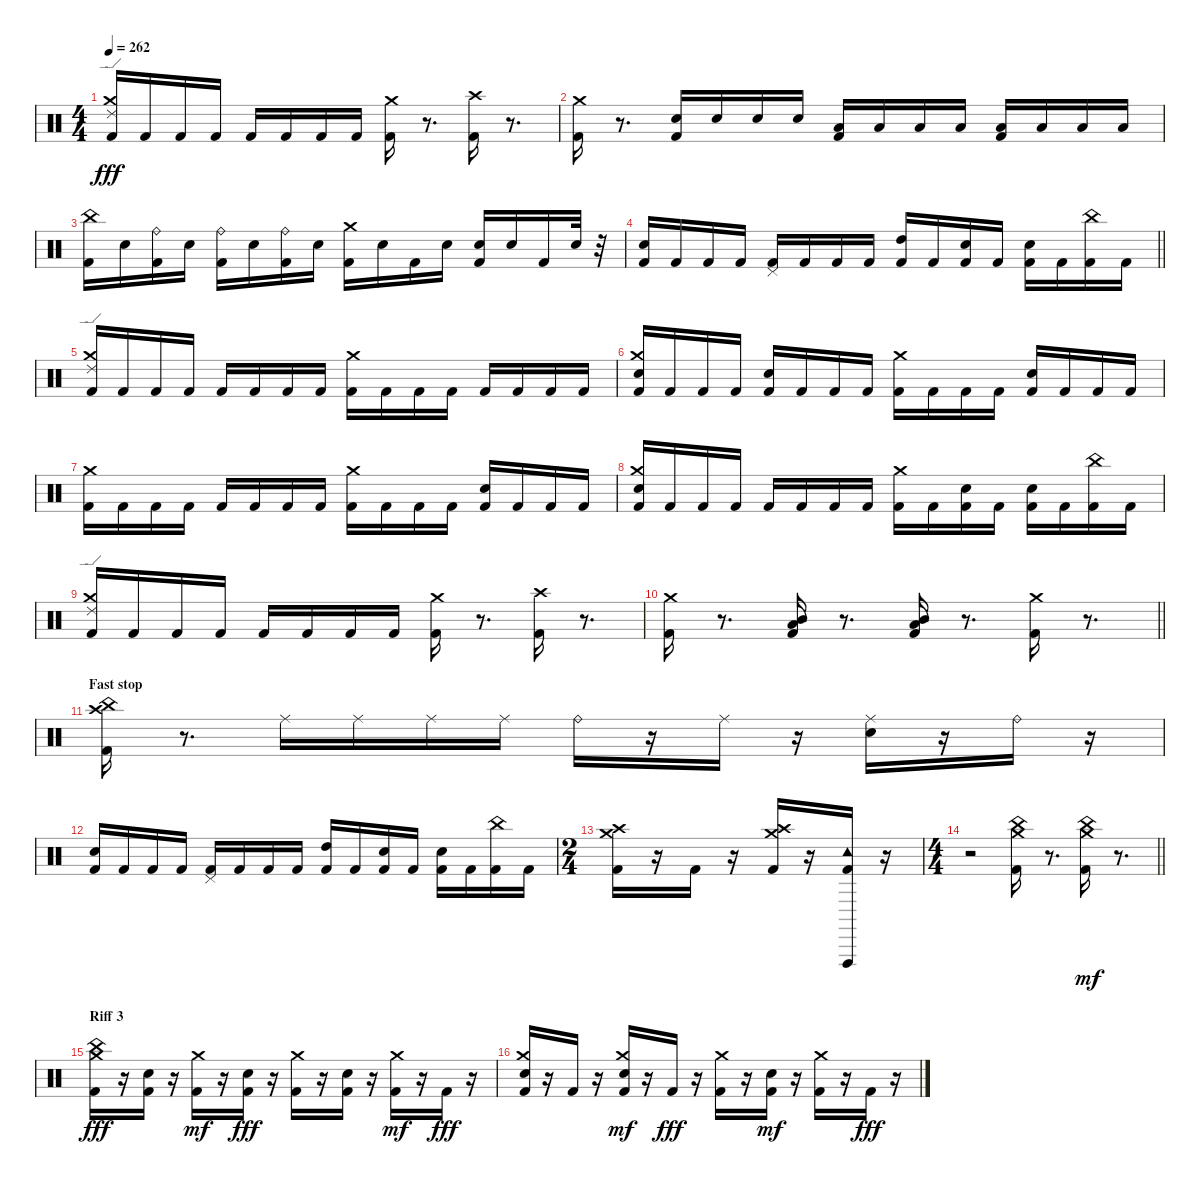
\track "" {instrument percussion}
\staff {score}
\articulation defaults
\ts (4 4)
\tempo 262
\clef neutral
\ks c
("Kick (hit) 2" "Crash medium (hit)" "Ride (edge) 2").16{dy fff} "Kick (hit) 2".16 "Kick (hit) 2".16 "Kick (hit) 2".16 "Kick (hit) 2".16 "Kick (hit) 2".16 "Kick (hit) 2".16 "Kick (hit) 2".16 ("Kick (hit) 2" "Crash medium (hit)").16 r.8{d} ("Kick (hit) 2" "Crash high (hit)").16 r.8{d} |
("Kick (hit) 2" "Crash medium (hit)").16 r.8{d} ("Kick (hit) 2" "Snare (hit) 2").16 "Snare (hit) 2".16 "Snare (hit) 2".16 "Snare (hit) 2".16 ("Kick (hit) 2" "Low Tom (hit)").16 "Low Tom (hit)".16 "Low Tom (hit)".16 "Low Tom (hit)".16 ("Kick (hit) 2" "Low Floor Tom (hit)").16 "Low Floor Tom (hit)".16 "Low Floor Tom (hit)".16 "Low Floor Tom (hit)".16 |
("Kick (hit) 2" "China (hit)").16 "Electric Snare (hit)".16 ("Kick (hit) 2" "Ride (bell)").16 "Electric Snare (hit)".16 ("Kick (hit) 2" "Ride (bell)").16 "Electric Snare (hit)".16 ("Kick (hit) 2" "Ride (bell)").16 "Electric Snare (hit)".16 ("Kick (hit) 2" "Crash medium (hit)").16 "Electric Snare (hit)".16 "Kick (hit) 2".16 "Electric Snare (hit)".16 ("Snare (hit)" "Kick (hit) 2").16 "Electric Snare (hit)".16 "Kick (hit) 2".16 "Electric Snare (hit)".32 r.32 |
\barLineRight lightlight
("Kick (hit) 2" "Snare (hit)").16 "Kick (hit) 2".16 "Kick (hit) 2".16 "Kick (hit) 2".16 ("Kick (hit) 2" "Pedal Hi-Hat (hit)").16 "Kick (hit) 2".16 "Kick (hit) 2".16 "Kick (hit) 2".16 ("Kick (hit) 2" "High Tom (hit)").16 "Kick (hit) 2".16 ("Kick (hit) 2" "Snare (hit) 2").16 "Kick (hit) 2".16 ("Kick (hit) 2" "Snare (hit) 2").16 "Kick (hit) 2".16 ("Kick (hit) 2" "China (hit)").16 "Kick (hit) 2".16 |
\section ("" "")
("Kick (hit) 2" "Crash medium (hit)" "Ride (edge) 2").16 "Kick (hit) 2".16 "Kick (hit) 2".16 "Kick (hit) 2".16 "Kick (hit) 2".16 "Kick (hit) 2".16 "Kick (hit) 2".16 "Kick (hit) 2".16 ("Kick (hit) 2" "Crash medium (hit)").16 "Kick (hit) 2".16 "Kick (hit) 2".16 "Kick (hit) 2".16 "Kick (hit) 2".16 "Kick (hit) 2".16 "Kick (hit) 2".16 "Kick (hit) 2".16 |
("Kick (hit) 2" "Snare (hit) 2" "Crash medium (hit)").16 "Kick (hit) 2".16 "Kick (hit) 2".16 "Kick (hit) 2".16 ("Kick (hit) 2" "Snare (hit) 2").16 "Kick (hit) 2".16 "Kick (hit) 2".16 "Kick (hit) 2".16 ("Kick (hit) 2" "Crash medium (hit)").16 "Kick (hit) 2".16 "Kick (hit) 2".16 "Kick (hit) 2".16 ("Kick (hit) 2" "Snare (hit)").16 "Kick (hit) 2".16 "Kick (hit) 2".16 "Kick (hit) 2".16 |
("Kick (hit) 2" "Crash medium (hit)").16 "Kick (hit) 2".16 "Kick (hit) 2".16 "Kick (hit) 2".16 "Kick (hit) 2".16 "Kick (hit) 2".16 "Kick (hit) 2".16 "Kick (hit) 2".16 ("Kick (hit) 2" "Crash medium (hit)").16 "Kick (hit) 2".16 "Kick (hit) 2".16 "Kick (hit) 2".16 ("Kick (hit) 2" "Snare (hit)").16 "Kick (hit) 2".16 "Kick (hit) 2".16 "Kick (hit) 2".16 |
("Kick (hit) 2" "Crash medium (hit)" "Hand Clap (hit)").16 "Kick (hit) 2".16 "Kick (hit) 2".16 "Kick (hit) 2".16 "Kick (hit) 2".16 "Kick (hit) 2".16 "Kick (hit) 2".16 "Kick (hit) 2".16 ("Kick (hit) 2" "Crash medium (hit)").16 "Kick (hit) 2".16 ("Kick (hit) 2" "Snare (hit) 2").16 "Kick (hit) 2".16 ("Kick (hit) 2" "Snare (hit) 2").16 "Kick (hit) 2".16 ("Kick (hit) 2" "China (hit)").16 "Kick (hit) 2".16 |
("Kick (hit) 2" "Crash medium (hit)" "Ride (edge) 2").16 "Kick (hit) 2".16 "Kick (hit) 2".16 "Kick (hit) 2".16 "Kick (hit) 2".16 "Kick (hit) 2".16 "Kick (hit) 2".16 "Kick (hit) 2".16 ("Kick (hit) 2" "Crash medium (hit)").16 r.8{d} ("Kick (hit) 2" "Crash high (hit)").16 r.8{d} |
\barLineRight lightlight
("Kick (hit) 2" "Crash medium (hit)").16 r.8{d} ("Kick (hit) 2" "Low Floor Tom (hit)" "Mid Tom (hit)").16 r.8{d} ("Kick (hit) 2" "Low Floor Tom (hit)" "Mid Tom (hit)").16 r.8{d} ("Kick (hit) 2" "Crash medium (hit)").16 r.8{d} |
\section ("" "Fast stop ")
("Kick (hit) 2" "Crash high (hit)" "China (hit)").16 r.8{d} "Ride (middle)".16 "Ride (middle)".16 "Ride (middle)".16 "Ride (middle)".16 "Ride (bell)".16 r.16 "Ride (middle)".16 r.16 ("Snare (hit)" "Ride (middle)").16 r.16 "Ride (bell)".16 r.16 |
("Snare (hit)" "Kick (hit) 2").16 "Kick (hit) 2".16 "Kick (hit) 2".16 "Kick (hit) 2".16 ("Kick (hit) 2" "Pedal Hi-Hat (hit)").16 "Kick (hit) 2".16 "Kick (hit) 2".16 "Kick (hit) 2".16 ("Kick (hit) 2" "High Tom (hit)").16 "Kick (hit) 2".16 ("Kick (hit) 2" "Snare (hit) 2").16 "Kick (hit) 2".16 ("Kick (hit) 2" "Snare (hit) 2").16 "Kick (hit) 2".16 ("Kick (hit) 2" "China (hit)").16 "Kick (hit) 2".16 |
\ts (2 4)
("Kick (hit) 2" "Crash high (hit)" "Crash medium (hit)").16 r.16 "Kick (hit) 2".16 r.16 ("Kick (hit) 2" "Crash high (hit)" "Crash medium (hit)").16 r.16 ("Kick (hit) 2" "Tambourine (hit)" "Vibraslap (hit)").16 r.16 |
\ts (4 4)
\barLineRight lightlight
r.2 ("Kick (hit) 2" "China (hit)" "Crash medium (hit)").16 r.8{d} ("Kick (hit) 2" "China (hit)" "Crash medium (hit)").16{dy mf} r.8{d} |
\section ("" "Riff 3")
("Kick (hit) 2" "China (hit)" "Crash medium (hit)").16{dy fff} r.16 ("Kick (hit) 2" "Hand Clap (hit)").16 r.16 ("Kick (hit) 2" "Crash medium (hit)").16{dy mf} r.16 ("Kick (hit) 2" "Hand Clap (hit)").16{dy fff} r.16 ("Kick (hit) 2" "Crash medium (hit)").16 r.16 ("Kick (hit) 2" "Hand Clap (hit)").16 r.16 ("Kick (hit) 2" "Crash medium (hit)").16{dy mf} r.16 "Kick (hit) 2".16{dy fff} r.16 |
("Kick (hit) 2" "Electric Snare (hit)" "Crash medium (hit)").16 r.16 "Kick (hit) 2".16 r.16 ("Kick (hit) 2" "Hand Clap (hit)" "Crash medium (hit)").16{dy mf} r.16 "Kick (hit) 2".16{dy fff} r.16 ("Kick (hit) 2" "Crash medium (hit)").16 r.16 ("Kick (hit) 2" "Hand Clap (hit)").16{dy mf} r.16 ("Kick (hit) 2" "Crash medium (hit)").16 r.16 "Kick (hit) 2".16{dy fff} r.16
